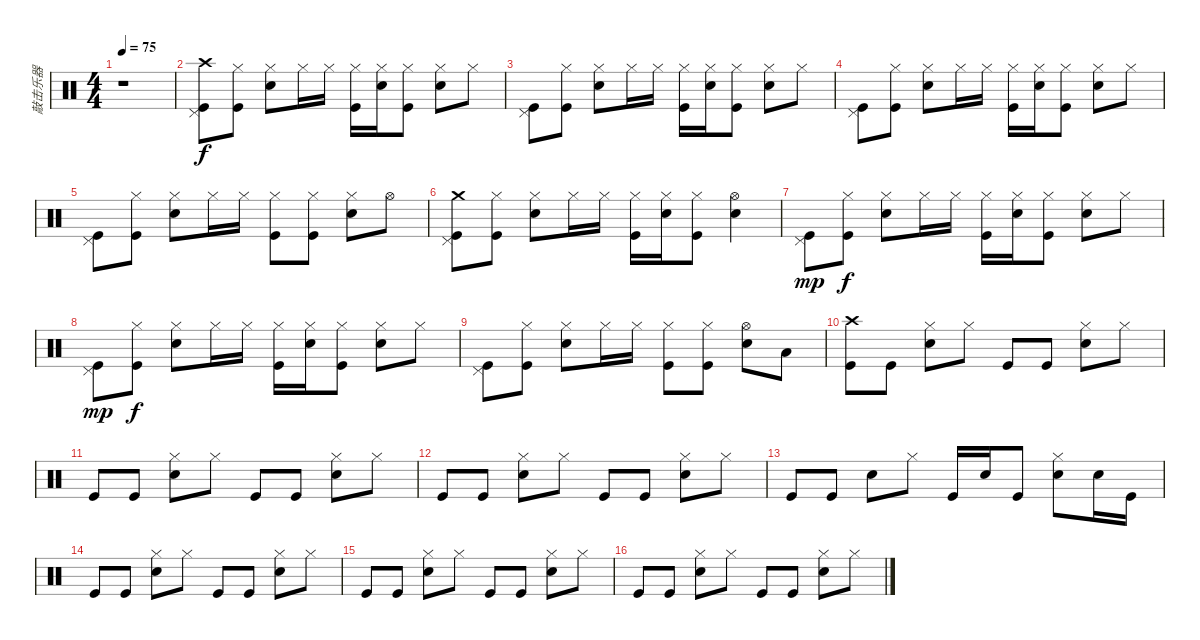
\track ("敲击乐器" "敲击乐器") {instrument percussion}
\staff {score}
\articulation defaults
\ts (4 4)
\tempo 75
\clef neutral
\ks c
r.1{dy f} |
("Pedal Hi-Hat (hit)" "Crash high (hit)" "Kick (hit)").8 ("Hi-Hat (closed)" "Kick (hit)").8 ("Hi-Hat (closed)" "Snare (hit) 2").8 "Hi-Hat (closed)".16 "Hi-Hat (closed)".16 ("Hi-Hat (closed)" "Kick (hit)").16 ("Hi-Hat (closed)" "Electric Snare (hit)").16 ("Hi-Hat (closed)" "Kick (hit)").8 ("Hi-Hat (closed)" "Snare (hit) 2").8 "Hi-Hat (closed)".8 |
("Pedal Hi-Hat (hit)" "Kick (hit)").8 ("Hi-Hat (closed)" "Kick (hit)").8 ("Hi-Hat (closed)" "Snare (hit) 2").8 "Hi-Hat (closed)".16 "Hi-Hat (closed)".16 ("Hi-Hat (closed)" "Kick (hit)").16 ("Hi-Hat (closed)" "Electric Snare (hit)").16 ("Hi-Hat (closed)" "Kick (hit)").8 ("Hi-Hat (closed)" "Snare (hit) 2").8 "Hi-Hat (closed)".8 |
("Pedal Hi-Hat (hit)" "Kick (hit)").8 ("Hi-Hat (closed)" "Kick (hit)").8 ("Hi-Hat (closed)" "Snare (hit) 2").8 "Hi-Hat (closed)".16 "Hi-Hat (closed)".16 ("Hi-Hat (closed)" "Kick (hit)").16 ("Hi-Hat (closed)" "Electric Snare (hit)").16 ("Hi-Hat (closed)" "Kick (hit)").8 ("Hi-Hat (closed)" "Snare (hit) 2").8 "Hi-Hat (closed)".8 |
("Pedal Hi-Hat (hit)" "Kick (hit)").8 ("Hi-Hat (closed)" "Kick (hit)").8 ("Hi-Hat (closed)" "Snare (hit) 2").8 "Hi-Hat (closed)".16 "Hi-Hat (closed)".16 ("Hi-Hat (closed)" "Kick (hit)").8 ("Hi-Hat (closed)" "Kick (hit)").8 ("Hi-Hat (closed)" "Snare (hit) 2").8 "Hi-Hat (open)".8 |
("Pedal Hi-Hat (hit)" "Crash medium (hit)" "Kick (hit)").8 ("Hi-Hat (closed)" "Kick (hit)").8 ("Hi-Hat (closed)" "Snare (hit) 2").8 "Hi-Hat (closed)".16 "Hi-Hat (closed)".16 ("Hi-Hat (closed)" "Kick (hit)").16 ("Hi-Hat (closed)" "Electric Snare (hit)").16 ("Hi-Hat (closed)" "Kick (hit)").8 ("Hi-Hat (open)" "Snare (hit) 2").4 |
("Pedal Hi-Hat (hit)" "Kick (hit)").8{dy mp} ("Hi-Hat (closed)" "Kick (hit)").8{dy f} ("Hi-Hat (closed)" "Snare (hit) 2").8 "Hi-Hat (closed)".16 "Hi-Hat (closed)".16 ("Hi-Hat (closed)" "Kick (hit)").16 ("Hi-Hat (closed)" "Electric Snare (hit)").16 ("Hi-Hat (closed)" "Kick (hit)").8 ("Hi-Hat (closed)" "Snare (hit) 2").8 "Hi-Hat (closed)".8 |
("Pedal Hi-Hat (hit)" "Kick (hit)").8{dy mp} ("Hi-Hat (closed)" "Kick (hit)").8{dy f} ("Hi-Hat (closed)" "Snare (hit) 2").8 "Hi-Hat (closed)".16 "Hi-Hat (closed)".16 ("Hi-Hat (closed)" "Kick (hit)").16 ("Hi-Hat (closed)" "Electric Snare (hit)").16 ("Hi-Hat (closed)" "Kick (hit)").8 ("Hi-Hat (closed)" "Snare (hit) 2").8 "Hi-Hat (closed)".8 |
("Pedal Hi-Hat (hit)" "Kick (hit)").8 ("Hi-Hat (closed)" "Kick (hit)").8 ("Hi-Hat (closed)" "Snare (hit) 2").8 "Hi-Hat (closed)".16 "Hi-Hat (closed)".16 ("Hi-Hat (closed)" "Kick (hit)").8 ("Hi-Hat (closed)" "Kick (hit)").8 ("Hi-Hat (open)" "Snare (hit) 2").8 "Low Tom (hit)".8 |
("Crash high (hit)" "Kick (hit)").8 "Kick (hit)".8 ("Hi-Hat (closed)" "Snare (hit) 2").8 "Hi-Hat (closed)".8 "Kick (hit)".8 "Kick (hit)".8 ("Hi-Hat (closed)" "Snare (hit) 2").8 "Hi-Hat (closed)".8 |
"Kick (hit)".8 "Kick (hit)".8 ("Hi-Hat (closed)" "Snare (hit) 2").8 "Hi-Hat (closed)".8 "Kick (hit)".8 "Kick (hit)".8 ("Hi-Hat (closed)" "Snare (hit) 2").8 "Hi-Hat (closed)".8 |
"Kick (hit)".8 "Kick (hit)".8 ("Hi-Hat (closed)" "Snare (hit) 2").8 "Hi-Hat (closed)".8 "Kick (hit)".8 "Kick (hit)".8 ("Hi-Hat (closed)" "Snare (hit) 2").8 "Hi-Hat (closed)".8 |
"Kick (hit)".8 "Kick (hit)".8 "Snare (hit) 2".8 "Hi-Hat (closed)".8 "Kick (hit)".16 "Electric Snare (hit)".16 "Kick (hit)".8 ("Hi-Hat (closed)" "Snare (hit) 2").8 "Electric Snare (hit)".16 "Kick (hit)".16 |
"Kick (hit)".8 "Kick (hit)".8 ("Hi-Hat (closed)" "Snare (hit) 2").8 "Hi-Hat (closed)".8 "Kick (hit)".8 "Kick (hit)".8 ("Hi-Hat (closed)" "Snare (hit) 2").8 "Hi-Hat (closed)".8 |
"Kick (hit)".8 "Kick (hit)".8 ("Hi-Hat (closed)" "Snare (hit) 2").8 "Hi-Hat (closed)".8 "Kick (hit)".8 "Kick (hit)".8 ("Hi-Hat (closed)" "Snare (hit) 2").8 "Hi-Hat (closed)".8 |
"Kick (hit)".8 "Kick (hit)".8 ("Hi-Hat (closed)" "Snare (hit) 2").8 "Hi-Hat (closed)".8 "Kick (hit)".8 "Kick (hit)".8 ("Hi-Hat (closed)" "Snare (hit) 2").8 "Hi-Hat (closed)".8
